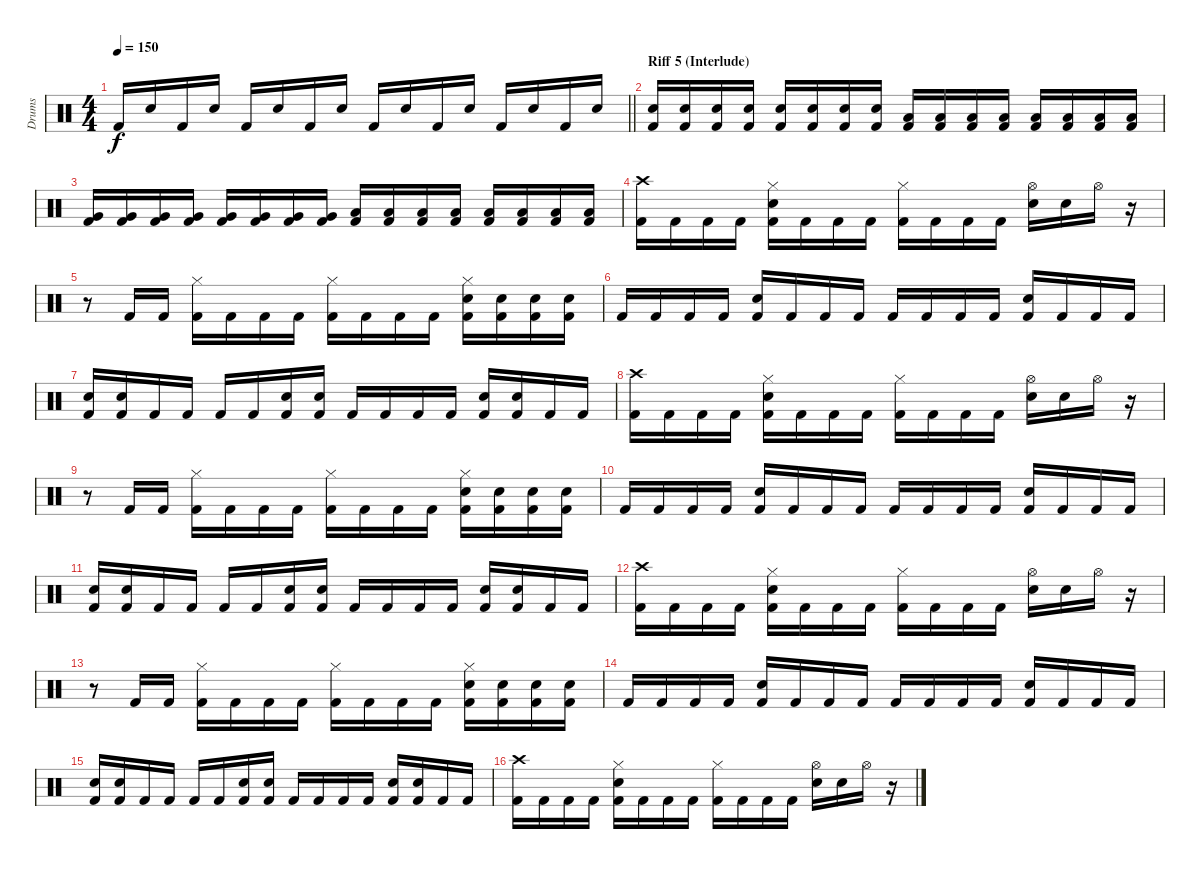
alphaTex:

\track ("Drums" "Drums") {instrument percussion}
\staff {score}
\articulation defaults
\ts (4 4)
\tempo 150
\clef neutral
\barLineRight lightlight
\ks c "Kick (hit) 2".16{dy f} "Snare (hit) 2".16 "Kick (hit) 2".16 "Snare (hit) 2".16 "Kick (hit) 2".16 "Snare (hit) 2".16 "Kick (hit) 2".16 "Snare (hit) 2".16 "Kick (hit) 2".16 "Snare (hit) 2".16 "Kick (hit) 2".16 "Snare (hit) 2".16 "Kick (hit) 2".16 "Snare (hit) 2".16 "Kick (hit) 2".16 "Snare (hit) 2".16
|
\section ("" "Riff 5 (Interlude)")
("Snare (hit) 2" "Kick (hit) 2").16 ("Snare (hit) 2" "Kick (hit) 2").16 ("Snare (hit) 2" "Kick (hit) 2").16 ("Snare (hit) 2" "Kick (hit) 2").16 ("Snare (hit) 2" "Kick (hit) 2").16 ("Snare (hit) 2" "Kick (hit) 2").16 ("Snare (hit) 2" "Kick (hit) 2").16 ("Snare (hit) 2" "Kick (hit) 2").16 ("Low Tom (hit)" "Kick (hit) 2").16 ("Low Tom (hit)" "Kick (hit) 2").16 ("Low Tom (hit)" "Kick (hit) 2").16 ("Low Tom (hit)" "Kick (hit) 2").16 ("Low Tom (hit)" "Kick (hit) 2").16 ("Low Tom (hit)" "Kick (hit) 2").16 ("Low Tom (hit)" "Kick (hit) 2").16 ("Low Tom (hit)" "Kick (hit) 2").16 |
("Very Low Tom (hit)" "Kick (hit) 2").16 ("Very Low Tom (hit)" "Kick (hit) 2").16 ("Very Low Tom (hit)" "Kick (hit) 2").16 ("Very Low Tom (hit)" "Kick (hit) 2").16 ("Very Low Tom (hit)" "Kick (hit) 2").16 ("Very Low Tom (hit)" "Kick (hit) 2").16 ("Very Low Tom (hit)" "Kick (hit) 2").16 ("Very Low Tom (hit)" "Kick (hit) 2").16 ("Low Floor Tom (hit)" "Kick (hit) 2").16 ("Low Floor Tom (hit)" "Kick (hit) 2").16 ("Low Floor Tom (hit)" "Kick (hit) 2").16 ("Low Floor Tom (hit)" "Kick (hit) 2").16 ("Low Floor Tom (hit)" "Kick (hit) 2").16 ("Low Floor Tom (hit)" "Kick (hit) 2").16 ("Low Floor Tom (hit)" "Kick (hit) 2").16 ("Low Floor Tom (hit)" "Kick (hit) 2").16 |
("Crash high (hit)" "Kick (hit) 2").16 "Kick (hit) 2".16 "Kick (hit) 2".16 "Kick (hit) 2".16 ("Hi-Hat (closed)" "Snare (hit) 2" "Kick (hit) 2").16 "Kick (hit) 2".16 "Kick (hit) 2".16 "Kick (hit) 2".16 ("Hi-Hat (closed)" "Kick (hit) 2").16 "Kick (hit) 2".16 "Kick (hit) 2".16 "Kick (hit) 2".16 ("Hi-Hat (open)" "Snare (hit) 2").16 "Snare (hit) 2".16 "Hi-Hat (open)".16 r.16 |
r.8 "Kick (hit) 2".16 "Kick (hit) 2".16 ("Hi-Hat (closed)" "Kick (hit) 2").16 "Kick (hit) 2".16 "Kick (hit) 2".16 "Kick (hit) 2".16 ("Hi-Hat (closed)" "Kick (hit) 2").16 "Kick (hit) 2".16 "Kick (hit) 2".16 "Kick (hit) 2".16 ("Hi-Hat (closed)" "Snare (hit) 2" "Kick (hit) 2").16 ("Snare (hit) 2" "Kick (hit) 2").16 ("Snare (hit) 2" "Kick (hit) 2").16 ("Snare (hit) 2" "Kick (hit) 2").16 |
"Kick (hit) 2".16 "Kick (hit) 2".16 "Kick (hit) 2".16 "Kick (hit) 2".16 ("Snare (hit) 2" "Kick (hit) 2").16 "Kick (hit) 2".16 "Kick (hit) 2".16 "Kick (hit) 2".16 "Kick (hit) 2".16 "Kick (hit) 2".16 "Kick (hit) 2".16 "Kick (hit) 2".16 ("Snare (hit) 2" "Kick (hit) 2").16 "Kick (hit) 2".16 "Kick (hit) 2".16 "Kick (hit) 2".16 |
("Snare (hit) 2" "Kick (hit) 2").16 ("Snare (hit) 2" "Kick (hit) 2").16 "Kick (hit) 2".16 "Kick (hit) 2".16 "Kick (hit) 2".16 "Kick (hit) 2".16 ("Snare (hit) 2" "Kick (hit) 2").16 ("Snare (hit) 2" "Kick (hit) 2").16 "Kick (hit) 2".16 "Kick (hit) 2".16 "Kick (hit) 2".16 "Kick (hit) 2".16 ("Snare (hit) 2" "Kick (hit) 2").16 ("Snare (hit) 2" "Kick (hit) 2").16 "Kick (hit) 2".16 "Kick (hit) 2".16 |
("Crash high (hit)" "Kick (hit) 2").16 "Kick (hit) 2".16 "Kick (hit) 2".16 "Kick (hit) 2".16 ("Hi-Hat (closed)" "Snare (hit) 2" "Kick (hit) 2").16 "Kick (hit) 2".16 "Kick (hit) 2".16 "Kick (hit) 2".16 ("Hi-Hat (closed)" "Kick (hit) 2").16 "Kick (hit) 2".16 "Kick (hit) 2".16 "Kick (hit) 2".16 ("Hi-Hat (open)" "Snare (hit) 2").16 "Snare (hit) 2".16 "Hi-Hat (open)".16 r.16 |
r.8 "Kick (hit) 2".16 "Kick (hit) 2".16 ("Hi-Hat (closed)" "Kick (hit) 2").16 "Kick (hit) 2".16 "Kick (hit) 2".16 "Kick (hit) 2".16 ("Hi-Hat (closed)" "Kick (hit) 2").16 "Kick (hit) 2".16 "Kick (hit) 2".16 "Kick (hit) 2".16 ("Hi-Hat (closed)" "Snare (hit) 2" "Kick (hit) 2").16 ("Snare (hit) 2" "Kick (hit) 2").16 ("Snare (hit) 2" "Kick (hit) 2").16 ("Snare (hit) 2" "Kick (hit) 2").16 |
"Kick (hit) 2".16 "Kick (hit) 2".16 "Kick (hit) 2".16 "Kick (hit) 2".16 ("Snare (hit) 2" "Kick (hit) 2").16 "Kick (hit) 2".16 "Kick (hit) 2".16 "Kick (hit) 2".16 "Kick (hit) 2".16 "Kick (hit) 2".16 "Kick (hit) 2".16 "Kick (hit) 2".16 ("Snare (hit) 2" "Kick (hit) 2").16 "Kick (hit) 2".16 "Kick (hit) 2".16 "Kick (hit) 2".16 |
("Snare (hit) 2" "Kick (hit) 2").16 ("Snare (hit) 2" "Kick (hit) 2").16 "Kick (hit) 2".16 "Kick (hit) 2".16 "Kick (hit) 2".16 "Kick (hit) 2".16 ("Snare (hit) 2" "Kick (hit) 2").16 ("Snare (hit) 2" "Kick (hit) 2").16 "Kick (hit) 2".16 "Kick (hit) 2".16 "Kick (hit) 2".16 "Kick (hit) 2".16 ("Snare (hit) 2" "Kick (hit) 2").16 ("Snare (hit) 2" "Kick (hit) 2").16 "Kick (hit) 2".16 "Kick (hit) 2".16 |
("Crash high (hit)" "Kick (hit) 2").16 "Kick (hit) 2".16 "Kick (hit) 2".16 "Kick (hit) 2".16 ("Hi-Hat (closed)" "Snare (hit) 2" "Kick (hit) 2").16 "Kick (hit) 2".16 "Kick (hit) 2".16 "Kick (hit) 2".16 ("Hi-Hat (closed)" "Kick (hit) 2").16 "Kick (hit) 2".16 "Kick (hit) 2".16 "Kick (hit) 2".16 ("Hi-Hat (open)" "Snare (hit) 2").16 "Snare (hit) 2".16 "Hi-Hat (open)".16 r.16 |
r.8 "Kick (hit) 2".16 "Kick (hit) 2".16 ("Hi-Hat (closed)" "Kick (hit) 2").16 "Kick (hit) 2".16 "Kick (hit) 2".16 "Kick (hit) 2".16 ("Hi-Hat (closed)" "Kick (hit) 2").16 "Kick (hit) 2".16 "Kick (hit) 2".16 "Kick (hit) 2".16 ("Hi-Hat (closed)" "Snare (hit) 2" "Kick (hit) 2").16 ("Snare (hit) 2" "Kick (hit) 2").16 ("Snare (hit) 2" "Kick (hit) 2").16 ("Snare (hit) 2" "Kick (hit) 2").16 |
"Kick (hit) 2".16 "Kick (hit) 2".16 "Kick (hit) 2".16 "Kick (hit) 2".16 ("Snare (hit) 2" "Kick (hit) 2").16 "Kick (hit) 2".16 "Kick (hit) 2".16 "Kick (hit) 2".16 "Kick (hit) 2".16 "Kick (hit) 2".16 "Kick (hit) 2".16 "Kick (hit) 2".16 ("Snare (hit) 2" "Kick (hit) 2").16 "Kick (hit) 2".16 "Kick (hit) 2".16 "Kick (hit) 2".16 |
("Snare (hit) 2" "Kick (hit) 2").16 ("Snare (hit) 2" "Kick (hit) 2").16 "Kick (hit) 2".16 "Kick (hit) 2".16 "Kick (hit) 2".16 "Kick (hit) 2".16 ("Snare (hit) 2" "Kick (hit) 2").16 ("Snare (hit) 2" "Kick (hit) 2").16 "Kick (hit) 2".16 "Kick (hit) 2".16 "Kick (hit) 2".16 "Kick (hit) 2".16 ("Snare (hit) 2" "Kick (hit) 2").16 ("Snare (hit) 2" "Kick (hit) 2").16 "Kick (hit) 2".16 "Kick (hit) 2".16 |
("Crash high (hit)" "Kick (hit) 2").16 "Kick (hit) 2".16 "Kick (hit) 2".16 "Kick (hit) 2".16 ("Hi-Hat (closed)" "Snare (hit) 2" "Kick (hit) 2").16 "Kick (hit) 2".16 "Kick (hit) 2".16 "Kick (hit) 2".16 ("Hi-Hat (closed)" "Kick (hit) 2").16 "Kick (hit) 2".16 "Kick (hit) 2".16 "Kick (hit) 2".16 ("Hi-Hat (open)" "Snare (hit) 2").16 "Snare (hit) 2".16 "Hi-Hat (open)".16 r.16
